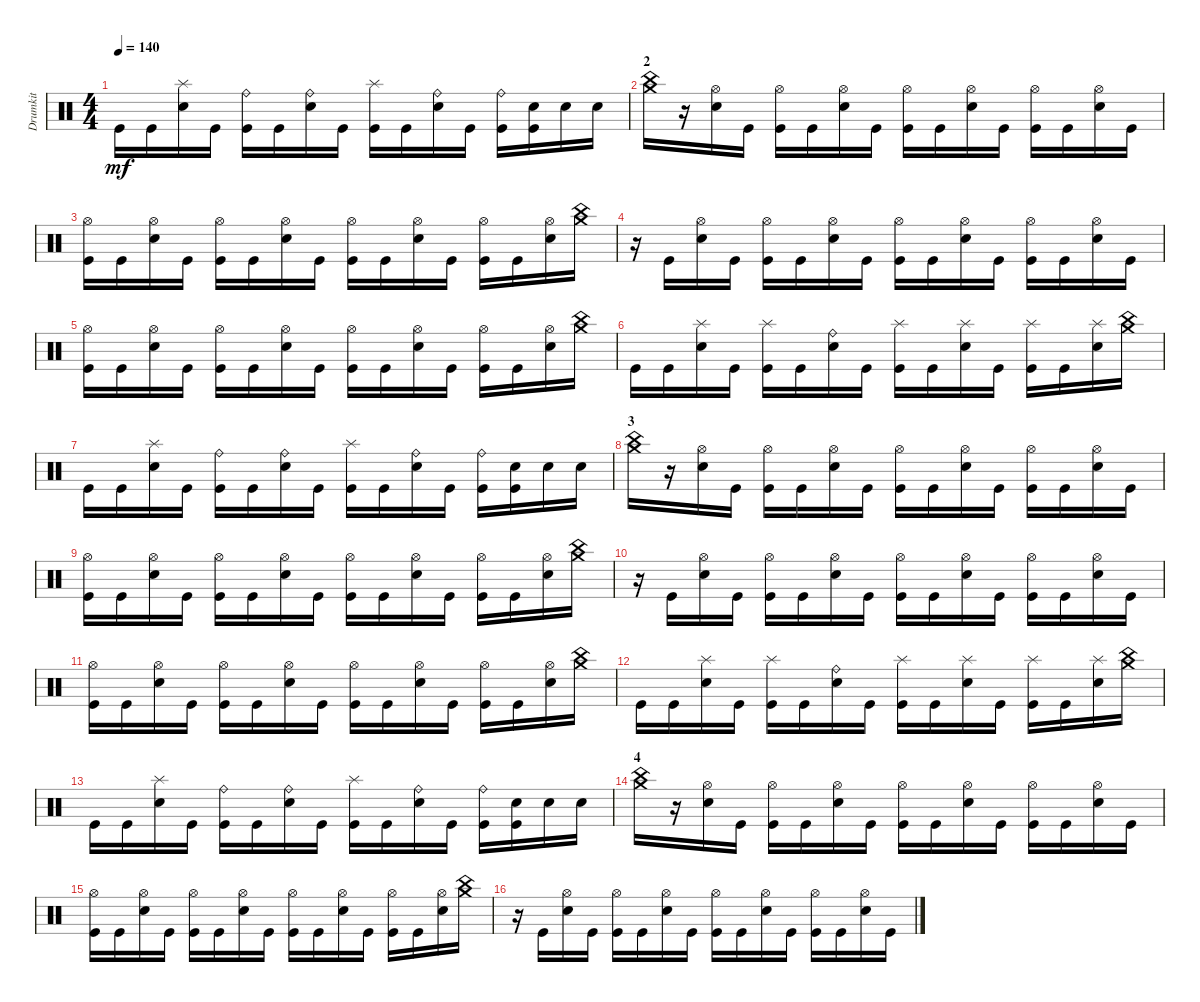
\track ("Drumkit" "Drumkit") {instrument percussion}
\staff {score}
\articulation defaults
\ts (4 4)
\tempo 140
\clef neutral
\ks c "Kick (hit)".16{dy mf} "Kick (hit)".16
("Snare (hit) 2" "Splash (hit)").16 "Kick (hit)".16 ("Kick (hit)" "Ride (bell)").16 "Kick (hit)".16 ("Snare (hit) 2" "Ride (bell)").16 "Kick (hit)".16 ("Kick (hit)" "Splash (hit)").16 "Kick (hit)".16 ("Snare (hit) 2" "Ride (bell)").16 "Kick (hit)".16 ("Kick (hit)" "Ride (bell)").16 ("Kick (hit)" "Snare (hit) 2").16 "Snare (hit) 2".16 "Snare (hit) 2".16 |
\section ("" "2")
("China (hit)" "Crash medium (hit)").16 r.16 ("Snare (hit) 2" "Hi-Hat (open)").16 "Kick (hit)".16 ("Kick (hit)" "Hi-Hat (open)").16 "Kick (hit)".16 ("Snare (hit) 2" "Hi-Hat (open)").16 "Kick (hit)".16 ("Kick (hit)" "Hi-Hat (open)").16 "Kick (hit)".16 ("Snare (hit) 2" "Hi-Hat (open)").16 "Kick (hit)".16 ("Kick (hit)" "Hi-Hat (open)").16 "Kick (hit)".16 ("Snare (hit) 2" "Hi-Hat (open)").16 "Kick (hit)".16 |
("Kick (hit)" "Hi-Hat (open)").16 "Kick (hit)".16 ("Snare (hit) 2" "Hi-Hat (open)").16 "Kick (hit)".16 ("Kick (hit)" "Hi-Hat (open)").16 "Kick (hit)".16 ("Snare (hit) 2" "Hi-Hat (open)").16 "Kick (hit)".16 ("Kick (hit)" "Hi-Hat (open)").16 "Kick (hit)".16 ("Snare (hit) 2" "Hi-Hat (open)").16 "Kick (hit)".16 ("Kick (hit)" "Hi-Hat (open)").16 "Kick (hit)".16 ("Snare (hit) 2" "Hi-Hat (open)").16 ("China (hit)" "Crash medium (hit)").16 |
r.16 "Kick (hit)".16 ("Snare (hit) 2" "Hi-Hat (open)").16 "Kick (hit)".16 ("Kick (hit)" "Hi-Hat (open)").16 "Kick (hit)".16 ("Snare (hit) 2" "Hi-Hat (open)").16 "Kick (hit)".16 ("Kick (hit)" "Hi-Hat (open)").16 "Kick (hit)".16 ("Snare (hit) 2" "Hi-Hat (open)").16 "Kick (hit)".16 ("Kick (hit)" "Hi-Hat (open)").16 "Kick (hit)".16 ("Snare (hit) 2" "Hi-Hat (open)").16 "Kick (hit)".16 |
("Kick (hit)" "Hi-Hat (open)").16 "Kick (hit)".16 ("Snare (hit) 2" "Hi-Hat (open)").16 "Kick (hit)".16 ("Kick (hit)" "Hi-Hat (open)").16 "Kick (hit)".16 ("Snare (hit) 2" "Hi-Hat (open)").16 "Kick (hit)".16 ("Kick (hit)" "Hi-Hat (open)").16 "Kick (hit)".16 ("Snare (hit) 2" "Hi-Hat (open)").16 "Kick (hit)".16 ("Kick (hit)" "Hi-Hat (open)").16 "Kick (hit)".16 ("Snare (hit) 2" "Hi-Hat (open)").16 ("China (hit)" "Crash medium (hit)").16 |
"Kick (hit)".16 "Kick (hit)".16 ("Snare (hit) 2" "Splash (hit)").16 "Kick (hit)".16 ("Kick (hit)" "Splash (hit)").16 "Kick (hit)".16 ("Snare (hit) 2" "Ride (bell)").16 "Kick (hit)".16 ("Kick (hit)" "Splash (hit)").16 "Kick (hit)".16 ("Snare (hit) 2" "Splash (hit)").16 "Kick (hit)".16 ("Kick (hit)" "Splash (hit)").16 "Kick (hit)".16 ("Snare (hit) 2" "Splash (hit)").16 ("China (hit)" "Crash medium (hit)").16 |
"Kick (hit)".16 "Kick (hit)".16 ("Snare (hit) 2" "Splash (hit)").16 "Kick (hit)".16 ("Kick (hit)" "Ride (bell)").16 "Kick (hit)".16 ("Snare (hit) 2" "Ride (bell)").16 "Kick (hit)".16 ("Kick (hit)" "Splash (hit)").16 "Kick (hit)".16 ("Snare (hit) 2" "Ride (bell)").16 "Kick (hit)".16 ("Kick (hit)" "Ride (bell)").16 ("Kick (hit)" "Snare (hit) 2").16 "Snare (hit) 2".16 "Snare (hit) 2".16 |
\section ("" "3")
("China (hit)" "Crash medium (hit)").16 r.16 ("Snare (hit) 2" "Hi-Hat (open)").16 "Kick (hit)".16 ("Kick (hit)" "Hi-Hat (open)").16 "Kick (hit)".16 ("Snare (hit) 2" "Hi-Hat (open)").16 "Kick (hit)".16 ("Kick (hit)" "Hi-Hat (open)").16 "Kick (hit)".16 ("Snare (hit) 2" "Hi-Hat (open)").16 "Kick (hit)".16 ("Kick (hit)" "Hi-Hat (open)").16 "Kick (hit)".16 ("Snare (hit) 2" "Hi-Hat (open)").16 "Kick (hit)".16 |
("Kick (hit)" "Hi-Hat (open)").16 "Kick (hit)".16 ("Snare (hit) 2" "Hi-Hat (open)").16 "Kick (hit)".16 ("Kick (hit)" "Hi-Hat (open)").16 "Kick (hit)".16 ("Snare (hit) 2" "Hi-Hat (open)").16 "Kick (hit)".16 ("Kick (hit)" "Hi-Hat (open)").16 "Kick (hit)".16 ("Snare (hit) 2" "Hi-Hat (open)").16 "Kick (hit)".16 ("Kick (hit)" "Hi-Hat (open)").16 "Kick (hit)".16 ("Snare (hit) 2" "Hi-Hat (open)").16 ("China (hit)" "Crash medium (hit)").16 |
r.16 "Kick (hit)".16 ("Snare (hit) 2" "Hi-Hat (open)").16 "Kick (hit)".16 ("Kick (hit)" "Hi-Hat (open)").16 "Kick (hit)".16 ("Snare (hit) 2" "Hi-Hat (open)").16 "Kick (hit)".16 ("Kick (hit)" "Hi-Hat (open)").16 "Kick (hit)".16 ("Snare (hit) 2" "Hi-Hat (open)").16 "Kick (hit)".16 ("Kick (hit)" "Hi-Hat (open)").16 "Kick (hit)".16 ("Snare (hit) 2" "Hi-Hat (open)").16 "Kick (hit)".16 |
("Kick (hit)" "Hi-Hat (open)").16 "Kick (hit)".16 ("Snare (hit) 2" "Hi-Hat (open)").16 "Kick (hit)".16 ("Kick (hit)" "Hi-Hat (open)").16 "Kick (hit)".16 ("Snare (hit) 2" "Hi-Hat (open)").16 "Kick (hit)".16 ("Kick (hit)" "Hi-Hat (open)").16 "Kick (hit)".16 ("Snare (hit) 2" "Hi-Hat (open)").16 "Kick (hit)".16 ("Kick (hit)" "Hi-Hat (open)").16 "Kick (hit)".16 ("Snare (hit) 2" "Hi-Hat (open)").16 ("China (hit)" "Crash medium (hit)").16 |
"Kick (hit)".16 "Kick (hit)".16 ("Snare (hit) 2" "Splash (hit)").16 "Kick (hit)".16 ("Kick (hit)" "Splash (hit)").16 "Kick (hit)".16 ("Snare (hit) 2" "Ride (bell)").16 "Kick (hit)".16 ("Kick (hit)" "Splash (hit)").16 "Kick (hit)".16 ("Snare (hit) 2" "Splash (hit)").16 "Kick (hit)".16 ("Kick (hit)" "Splash (hit)").16 "Kick (hit)".16 ("Snare (hit) 2" "Splash (hit)").16 ("China (hit)" "Crash medium (hit)").16 |
"Kick (hit)".16 "Kick (hit)".16 ("Snare (hit) 2" "Splash (hit)").16 "Kick (hit)".16 ("Kick (hit)" "Ride (bell)").16 "Kick (hit)".16 ("Snare (hit) 2" "Ride (bell)").16 "Kick (hit)".16 ("Kick (hit)" "Splash (hit)").16 "Kick (hit)".16 ("Snare (hit) 2" "Ride (bell)").16 "Kick (hit)".16 ("Kick (hit)" "Ride (bell)").16 ("Kick (hit)" "Snare (hit) 2").16 "Snare (hit) 2".16 "Snare (hit) 2".16 |
\section ("" "4")
("China (hit)" "Crash medium (hit)").16 r.16 ("Snare (hit) 2" "Hi-Hat (open)").16 "Kick (hit)".16 ("Kick (hit)" "Hi-Hat (open)").16 "Kick (hit)".16 ("Snare (hit) 2" "Hi-Hat (open)").16 "Kick (hit)".16 ("Kick (hit)" "Hi-Hat (open)").16 "Kick (hit)".16 ("Snare (hit) 2" "Hi-Hat (open)").16 "Kick (hit)".16 ("Kick (hit)" "Hi-Hat (open)").16 "Kick (hit)".16 ("Snare (hit) 2" "Hi-Hat (open)").16 "Kick (hit)".16 |
("Kick (hit)" "Hi-Hat (open)").16 "Kick (hit)".16 ("Snare (hit) 2" "Hi-Hat (open)").16 "Kick (hit)".16 ("Kick (hit)" "Hi-Hat (open)").16 "Kick (hit)".16 ("Snare (hit) 2" "Hi-Hat (open)").16 "Kick (hit)".16 ("Kick (hit)" "Hi-Hat (open)").16 "Kick (hit)".16 ("Snare (hit) 2" "Hi-Hat (open)").16 "Kick (hit)".16 ("Kick (hit)" "Hi-Hat (open)").16 "Kick (hit)".16 ("Snare (hit) 2" "Hi-Hat (open)").16 ("China (hit)" "Crash medium (hit)").16 |
r.16 "Kick (hit)".16 ("Snare (hit) 2" "Hi-Hat (open)").16 "Kick (hit)".16 ("Kick (hit)" "Hi-Hat (open)").16 "Kick (hit)".16 ("Snare (hit) 2" "Hi-Hat (open)").16 "Kick (hit)".16 ("Kick (hit)" "Hi-Hat (open)").16 "Kick (hit)".16 ("Snare (hit) 2" "Hi-Hat (open)").16 "Kick (hit)".16 ("Kick (hit)" "Hi-Hat (open)").16 "Kick (hit)".16 ("Snare (hit) 2" "Hi-Hat (open)").16 "Kick (hit)".16
